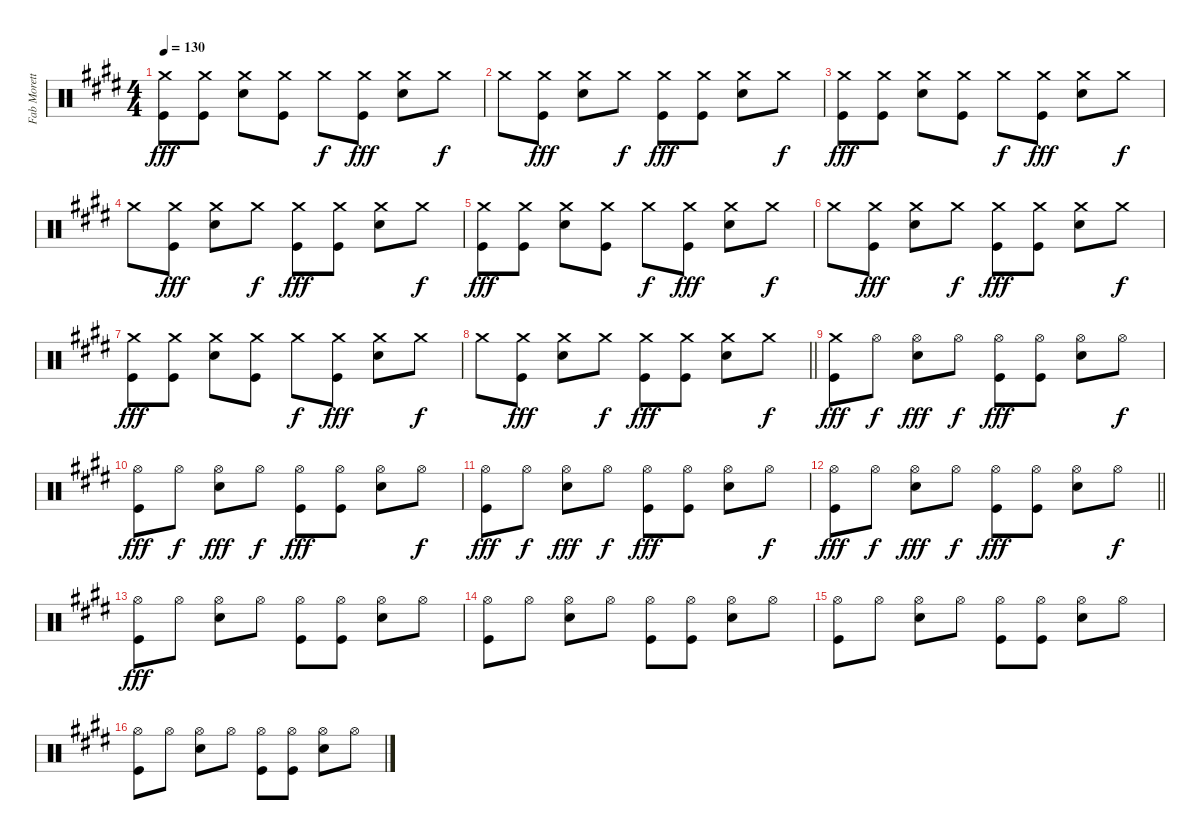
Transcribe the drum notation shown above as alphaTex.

\track ("Fab Moretti" "Fab Morett") {instrument percussion}
\staff {score}
\articulation defaults
\ts (4 4)
\tempo 130
\clef neutral
\ks e
("Crash medium (hit)" "Kick (hit)").8{dy fff} ("Crash medium (hit)" "Kick (hit)").8 ("Crash medium (hit)" "Snare (hit) 2").8 ("Crash medium (hit)" "Kick (hit)").8 "Crash medium (hit)".8{dy f} ("Crash medium (hit)" "Kick (hit)").8{dy fff} ("Crash medium (hit)" "Snare (hit) 2").8 "Crash medium (hit)".8{dy f} |
"Crash medium (hit)".8 ("Crash medium (hit)" "Kick (hit)").8{dy fff} ("Crash medium (hit)" "Snare (hit) 2").8 "Crash medium (hit)".8{dy f} ("Crash medium (hit)" "Kick (hit)").8{dy fff} ("Crash medium (hit)" "Kick (hit)").8 ("Crash medium (hit)" "Snare (hit) 2").8 "Crash medium (hit)".8{dy f} |
("Crash medium (hit)" "Kick (hit)").8{dy fff} ("Crash medium (hit)" "Kick (hit)").8 ("Crash medium (hit)" "Snare (hit) 2").8 ("Crash medium (hit)" "Kick (hit)").8 "Crash medium (hit)".8{dy f} ("Crash medium (hit)" "Kick (hit)").8{dy fff} ("Crash medium (hit)" "Snare (hit) 2").8 "Crash medium (hit)".8{dy f} |
"Crash medium (hit)".8 ("Crash medium (hit)" "Kick (hit)").8{dy fff} ("Crash medium (hit)" "Snare (hit) 2").8 "Crash medium (hit)".8{dy f} ("Crash medium (hit)" "Kick (hit)").8{dy fff} ("Crash medium (hit)" "Kick (hit)").8 ("Crash medium (hit)" "Snare (hit) 2").8 "Crash medium (hit)".8{dy f} |
("Crash medium (hit)" "Kick (hit)").8{dy fff} ("Crash medium (hit)" "Kick (hit)").8 ("Crash medium (hit)" "Snare (hit) 2").8 ("Crash medium (hit)" "Kick (hit)").8 "Crash medium (hit)".8{dy f} ("Crash medium (hit)" "Kick (hit)").8{dy fff} ("Crash medium (hit)" "Snare (hit) 2").8 "Crash medium (hit)".8{dy f} |
"Crash medium (hit)".8 ("Crash medium (hit)" "Kick (hit)").8{dy fff} ("Crash medium (hit)" "Snare (hit) 2").8 "Crash medium (hit)".8{dy f} ("Crash medium (hit)" "Kick (hit)").8{dy fff} ("Crash medium (hit)" "Kick (hit)").8 ("Crash medium (hit)" "Snare (hit) 2").8 "Crash medium (hit)".8{dy f} |
("Crash medium (hit)" "Kick (hit)").8{dy fff} ("Crash medium (hit)" "Kick (hit)").8 ("Crash medium (hit)" "Snare (hit) 2").8 ("Crash medium (hit)" "Kick (hit)").8 "Crash medium (hit)".8{dy f} ("Crash medium (hit)" "Kick (hit)").8{dy fff} ("Crash medium (hit)" "Snare (hit) 2").8 "Crash medium (hit)".8{dy f} |
\barLineRight lightlight "Crash medium (hit)".8
("Crash medium (hit)" "Kick (hit)").8{dy fff} ("Crash medium (hit)" "Snare (hit) 2").8 "Crash medium (hit)".8{dy f} ("Crash medium (hit)" "Kick (hit)").8{dy fff} ("Crash medium (hit)" "Kick (hit)").8 ("Crash medium (hit)" "Snare (hit) 2").8 "Crash medium (hit)".8{dy f} |
("Crash medium (hit)" "Kick (hit)").8{dy fff} "Hi-Hat (open)".8{dy f} ("Hi-Hat (open)" "Snare (hit) 2").8{dy fff} "Hi-Hat (open)".8{dy f} ("Hi-Hat (open)" "Kick (hit)").8{dy fff} ("Hi-Hat (open)" "Kick (hit)").8 ("Hi-Hat (open)" "Snare (hit) 2").8 "Hi-Hat (open)".8{dy f} |
("Hi-Hat (open)" "Kick (hit)").8{dy fff} "Hi-Hat (open)".8{dy f} ("Hi-Hat (open)" "Snare (hit) 2").8{dy fff} "Hi-Hat (open)".8{dy f} ("Hi-Hat (open)" "Kick (hit)").8{dy fff} ("Hi-Hat (open)" "Kick (hit)").8 ("Hi-Hat (open)" "Snare (hit) 2").8 "Hi-Hat (open)".8{dy f} |
("Hi-Hat (open)" "Kick (hit)").8{dy fff} "Hi-Hat (open)".8{dy f} ("Hi-Hat (open)" "Snare (hit) 2").8{dy fff} "Hi-Hat (open)".8{dy f} ("Hi-Hat (open)" "Kick (hit)").8{dy fff} ("Hi-Hat (open)" "Kick (hit)").8 ("Hi-Hat (open)" "Snare (hit) 2").8 "Hi-Hat (open)".8{dy f} |
\barLineRight lightlight
("Hi-Hat (open)" "Kick (hit)").8{dy fff} "Hi-Hat (open)".8{dy f} ("Hi-Hat (open)" "Snare (hit) 2").8{dy fff} "Hi-Hat (open)".8{dy f} ("Hi-Hat (open)" "Kick (hit)").8{dy fff} ("Hi-Hat (open)" "Kick (hit)").8 ("Hi-Hat (open)" "Snare (hit) 2").8 "Hi-Hat (open)".8{dy f} |
("Hi-Hat (open)" "Kick (hit)").8{dy fff} "Hi-Hat (open)".8 ("Hi-Hat (open)" "Snare (hit) 2").8 "Hi-Hat (open)".8 ("Hi-Hat (open)" "Kick (hit)").8 ("Hi-Hat (open)" "Kick (hit)").8 ("Hi-Hat (open)" "Snare (hit) 2").8 "Hi-Hat (open)".8 |
("Hi-Hat (open)" "Kick (hit)").8 "Hi-Hat (open)".8 ("Hi-Hat (open)" "Snare (hit) 2").8 "Hi-Hat (open)".8 ("Hi-Hat (open)" "Kick (hit)").8 ("Hi-Hat (open)" "Kick (hit)").8 ("Hi-Hat (open)" "Snare (hit) 2").8 "Hi-Hat (open)".8 |
("Hi-Hat (open)" "Kick (hit)").8 "Hi-Hat (open)".8 ("Hi-Hat (open)" "Snare (hit) 2").8 "Hi-Hat (open)".8 ("Hi-Hat (open)" "Kick (hit)").8 ("Hi-Hat (open)" "Kick (hit)").8 ("Hi-Hat (open)" "Snare (hit) 2").8 "Hi-Hat (open)".8 |
("Hi-Hat (open)" "Kick (hit)").8 "Hi-Hat (open)".8 ("Hi-Hat (open)" "Snare (hit) 2").8 "Hi-Hat (open)".8 ("Hi-Hat (open)" "Kick (hit)").8 ("Hi-Hat (open)" "Kick (hit)").8 ("Hi-Hat (open)" "Snare (hit) 2").8 "Hi-Hat (open)".8
